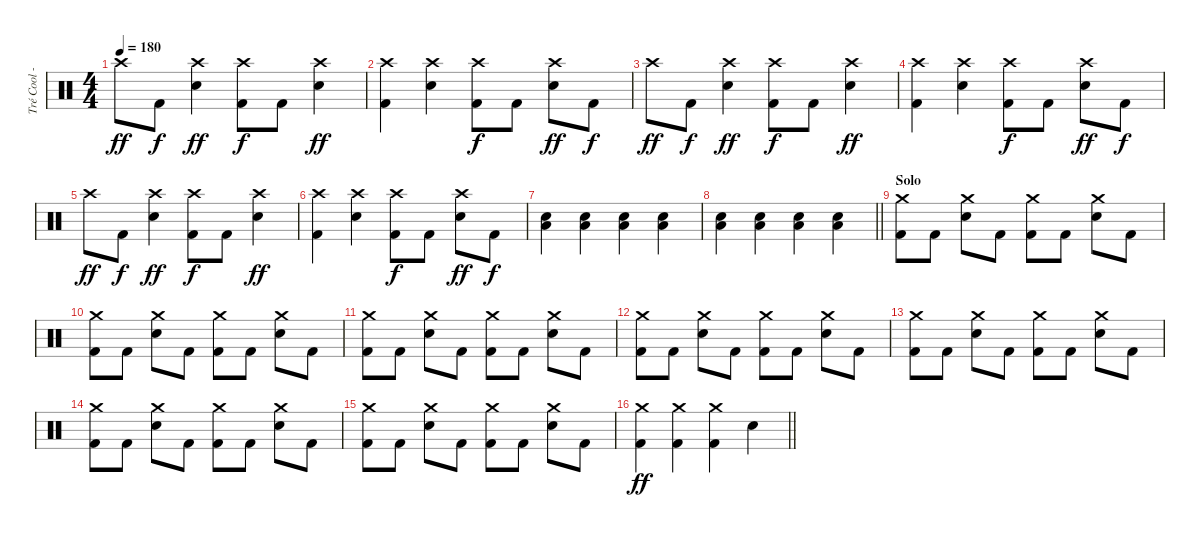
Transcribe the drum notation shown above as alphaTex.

\track ("Tré Cool - Drums" "Tré Cool -") {instrument percussion}
\staff {score}
\articulation defaults
\ts (4 4)
\tempo 180
\clef neutral
\ks c "Crash high (hit)".8{dy ff} "Kick (hit) 2".8{dy f}
("Crash high (hit)" "Electric Snare (hit)").4{dy ff} ("Crash high (hit)" "Kick (hit) 2").8{dy f} "Kick (hit) 2".8 ("Crash high (hit)" "Electric Snare (hit)").4{dy ff} |
("Crash high (hit)" "Kick (hit) 2").4 ("Crash high (hit)" "Electric Snare (hit)").4 ("Crash high (hit)" "Kick (hit) 2").8{dy f} "Kick (hit) 2".8 ("Crash high (hit)" "Electric Snare (hit)").8{dy ff} "Kick (hit) 2".8{dy f} |
"Crash high (hit)".8{dy ff} "Kick (hit) 2".8{dy f} ("Crash high (hit)" "Electric Snare (hit)").4{dy ff} ("Crash high (hit)" "Kick (hit) 2").8{dy f} "Kick (hit) 2".8 ("Crash high (hit)" "Electric Snare (hit)").4{dy ff} |
("Crash high (hit)" "Kick (hit) 2").4 ("Crash high (hit)" "Electric Snare (hit)").4 ("Crash high (hit)" "Kick (hit) 2").8{dy f} "Kick (hit) 2".8 ("Crash high (hit)" "Electric Snare (hit)").8{dy ff} "Kick (hit) 2".8{dy f} |
"Crash high (hit)".8{dy ff} "Kick (hit) 2".8{dy f} ("Crash high (hit)" "Electric Snare (hit)").4{dy ff} ("Crash high (hit)" "Kick (hit) 2").8{dy f} "Kick (hit) 2".8 ("Crash high (hit)" "Electric Snare (hit)").4{dy ff} |
("Crash high (hit)" "Kick (hit) 2").4 ("Crash high (hit)" "Electric Snare (hit)").4 ("Crash high (hit)" "Kick (hit) 2").8{dy f} "Kick (hit) 2".8 ("Crash high (hit)" "Electric Snare (hit)").8{dy ff} "Kick (hit) 2".8{dy f} |
("Electric Snare (hit)" "Low Tom (hit)").4 ("Electric Snare (hit)" "Low Tom (hit)").4 ("Electric Snare (hit)" "Low Tom (hit)").4 ("Electric Snare (hit)" "Low Tom (hit)").4 |
\barLineRight lightlight
("Electric Snare (hit)" "Low Tom (hit)").4 ("Electric Snare (hit)" "Low Tom (hit)").4 ("Electric Snare (hit)" "Low Tom (hit)").4 ("Electric Snare (hit)" "Low Tom (hit)").4 |
\section ("" "Solo")
("Crash medium (hit)" "Kick (hit) 2").8 "Kick (hit) 2".8 ("Crash medium (hit)" "Electric Snare (hit)").8 "Kick (hit) 2".8 ("Crash medium (hit)" "Kick (hit) 2").8 "Kick (hit) 2".8 ("Crash medium (hit)" "Electric Snare (hit)").8 "Kick (hit) 2".8 |
("Crash medium (hit)" "Kick (hit) 2").8 "Kick (hit) 2".8 ("Crash medium (hit)" "Electric Snare (hit)").8 "Kick (hit) 2".8 ("Crash medium (hit)" "Kick (hit) 2").8 "Kick (hit) 2".8 ("Crash medium (hit)" "Electric Snare (hit)").8 "Kick (hit) 2".8 |
("Crash medium (hit)" "Kick (hit) 2").8 "Kick (hit) 2".8 ("Crash medium (hit)" "Electric Snare (hit)").8 "Kick (hit) 2".8 ("Crash medium (hit)" "Kick (hit) 2").8 "Kick (hit) 2".8 ("Crash medium (hit)" "Electric Snare (hit)").8 "Kick (hit) 2".8 |
("Crash medium (hit)" "Kick (hit) 2").8 "Kick (hit) 2".8 ("Crash medium (hit)" "Electric Snare (hit)").8 "Kick (hit) 2".8 ("Crash medium (hit)" "Kick (hit) 2").8 "Kick (hit) 2".8 ("Crash medium (hit)" "Electric Snare (hit)").8 "Kick (hit) 2".8 |
("Crash medium (hit)" "Kick (hit) 2").8 "Kick (hit) 2".8 ("Crash medium (hit)" "Electric Snare (hit)").8 "Kick (hit) 2".8 ("Crash medium (hit)" "Kick (hit) 2").8 "Kick (hit) 2".8 ("Crash medium (hit)" "Electric Snare (hit)").8 "Kick (hit) 2".8 |
("Crash medium (hit)" "Kick (hit) 2").8 "Kick (hit) 2".8 ("Crash medium (hit)" "Electric Snare (hit)").8 "Kick (hit) 2".8 ("Crash medium (hit)" "Kick (hit) 2").8 "Kick (hit) 2".8 ("Crash medium (hit)" "Electric Snare (hit)").8 "Kick (hit) 2".8 |
("Crash medium (hit)" "Kick (hit) 2").8 "Kick (hit) 2".8 ("Crash medium (hit)" "Electric Snare (hit)").8 "Kick (hit) 2".8 ("Crash medium (hit)" "Kick (hit) 2").8 "Kick (hit) 2".8 ("Crash medium (hit)" "Electric Snare (hit)").8 "Kick (hit) 2".8 |
\barLineRight lightlight
("Crash medium (hit)" "Kick (hit) 2").4{dy ff} ("Crash medium (hit)" "Kick (hit) 2").4 ("Crash medium (hit)" "Kick (hit) 2").4 "Electric Snare (hit)".4
